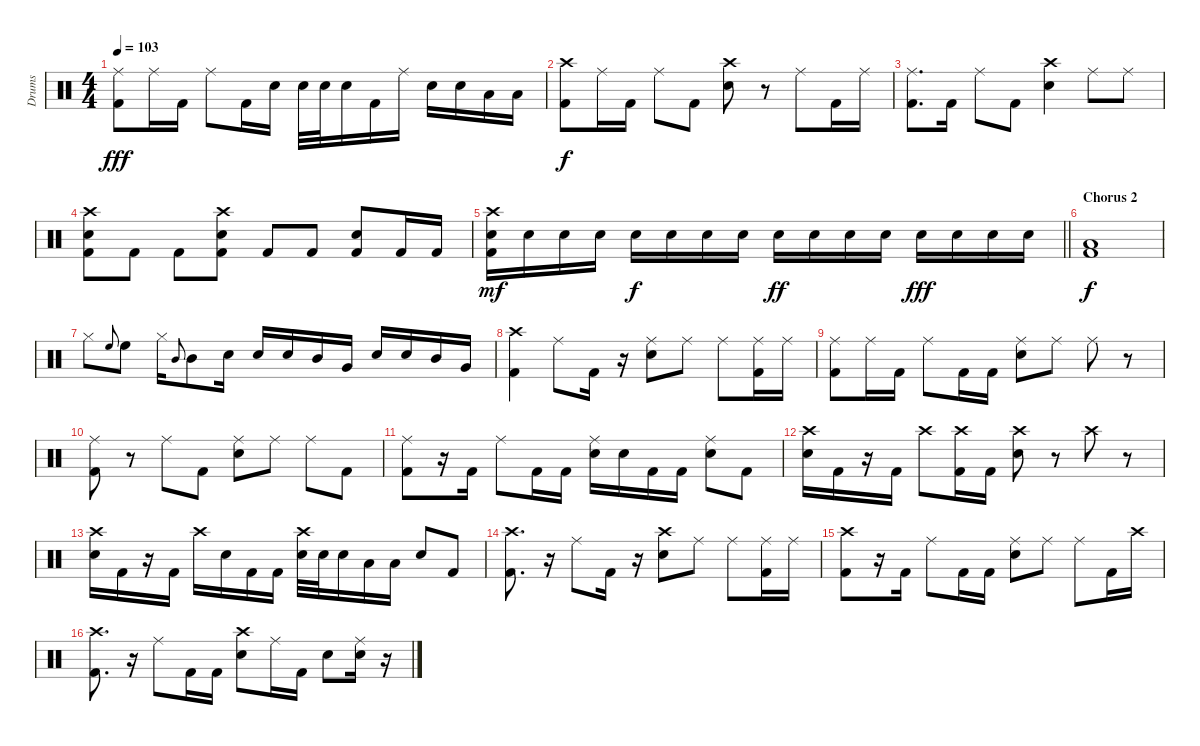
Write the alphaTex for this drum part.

\track ("Drums" "Drums") {instrument percussion}
\staff {score}
\articulation defaults
\ts (4 4)
\tempo 103
\clef neutral
\ks c
("Ride (middle)" "Kick (hit) 2").8{dy fff} "Ride (middle)".16 "Kick (hit) 2".16 "Ride (middle)".8 "Kick (hit) 2".16 "Snare (hit) 2".16 "Snare (hit) 2".32 "Snare (hit) 2".32 "Snare (hit) 2".16 "Kick (hit) 2".16 "Ride (middle)".16 "Snare (hit) 2".16 "Snare (hit) 2".16 "Low Tom (hit)".16 "Low Tom (hit)".16 |
("Kick (hit) 2" "Crash high (hit)").8{dy f} "Ride (middle)".16 "Kick (hit) 2".16 "Ride (middle)".8 "Kick (hit) 2".8 ("Snare (hit) 2" "Crash high (hit)").8 r.8 "Ride (middle)".8 "Kick (hit) 2".16 "Ride (middle)".16 |
("Kick (hit) 2" "Ride (middle)").8{d} "Kick (hit) 2".16 "Ride (middle)".8 "Kick (hit) 2".8 ("Snare (hit) 2" "Crash high (hit)").4 "Ride (middle)".8 "Ride (middle)".8 |
("Crash high (hit)" "Snare (hit) 2" "Kick (hit) 2").8 "Kick (hit) 2".8 "Kick (hit) 2".8 ("Crash high (hit)" "Snare (hit) 2" "Kick (hit) 2").8 "Kick (hit) 2".8 "Kick (hit) 2".8 ("Snare (hit) 2" "Kick (hit) 2").8 "Kick (hit) 2".16 "Kick (hit) 2".16 |
\barLineRight lightlight
("Snare (hit) 2" "Crash high (hit)" "Kick (hit) 2").16{dy mf} "Snare (hit) 2".16 "Snare (hit) 2".16 "Snare (hit) 2".16 "Snare (hit) 2".16{dy f} "Snare (hit) 2".16 "Snare (hit) 2".16 "Snare (hit) 2".16 "Snare (hit) 2".16{dy ff} "Snare (hit) 2".16 "Snare (hit) 2".16 "Snare (hit) 2".16 "Snare (hit) 2".16{dy fff} "Snare (hit) 2".16 "Snare (hit) 2".16 "Snare (hit) 2".16 |
\section ("" "Chorus 2")
("Kick (hit) 2" "Low Tom (hit)").1{dy f} |
"Hi-Hat (closed)".8 "High Floor Tom (hit)".8{gr onbeat} "High Floor Tom (hit)".8 "Hi-Hat (closed)".16 "Mid Tom (hit)".8{gr onbeat} "Mid Tom (hit)".8 "Snare (hit) 2".16 "Snare (hit) 2".16 "Snare (hit) 2".16 "Mid Tom (hit)".16 "Very Low Tom (hit)".16 "Snare (hit) 2".16 "Snare (hit) 2".16 "Mid Tom (hit)".16 "Very Low Tom (hit)".16 |
("Crash high (hit)" "Kick (hit) 2").4 "Ride (middle)".8 "Kick (hit) 2".16 r.16 ("Ride (middle)" "Snare (hit) 2").8 "Ride (middle)".8 "Ride (middle)".8 ("Ride (middle)" "Kick (hit) 2").16 "Ride (middle)".16 |
("Ride (middle)" "Kick (hit) 2").8 "Ride (middle)".16 "Kick (hit) 2".16 "Ride (middle)".8 "Kick (hit) 2".16 "Kick (hit) 2".16 ("Ride (middle)" "Snare (hit) 2").8 "Ride (middle)".8 "Ride (middle)".8 r.8 |
("Kick (hit) 2" "Ride (middle)").8 r.8 "Ride (middle)".8 "Kick (hit) 2".8 ("Ride (middle)" "Snare (hit) 2").8 "Ride (middle)".8 "Ride (middle)".8 "Kick (hit) 2".8 |
("Ride (middle)" "Kick (hit) 2").8 r.16 "Kick (hit) 2".16 "Ride (middle)".8 "Kick (hit) 2".16 "Kick (hit) 2".16 ("Ride (middle)" "Snare (hit) 2").16 "Snare (hit) 2".16 "Kick (hit) 2".16 "Kick (hit) 2".16 ("Ride (middle)" "Snare (hit) 2").8 "Kick (hit) 2".8 |
("Crash high (hit)" "Snare (hit) 2").16 "Kick (hit) 2".16 r.16 "Kick (hit) 2".16 "Crash high (hit)".8 ("Crash high (hit)" "Kick (hit) 2").16 "Kick (hit) 2".16 ("Crash high (hit)" "Snare (hit) 2").8 r.8 "Crash high (hit)".8 r.8 |
("Snare (hit) 2" "Crash high (hit)").16 "Kick (hit) 2".16 r.16 "Kick (hit) 2".16 "Crash high (hit)".16 "Snare (hit) 2".16 "Kick (hit) 2".16 "Kick (hit) 2".16 ("Crash high (hit)" "Snare (hit) 2").32 "Snare (hit) 2".32 "Snare (hit) 2".16 "Low Tom (hit)".16 "Low Floor Tom (hit)".16 "Snare (hit) 2".8 "Kick (hit) 2".8 |
("Kick (hit) 2" "Crash high (hit)").8{d} r.16 "Ride (middle)".8 "Kick (hit) 2".16 r.16 ("Crash high (hit)" "Snare (hit) 2").8 "Ride (middle)".8 "Ride (middle)".8 ("Ride (middle)" "Kick (hit) 2").16 "Ride (middle)".16 |
("Crash high (hit)" "Kick (hit) 2").8 r.16 "Kick (hit) 2".16 "Ride (middle)".8 "Kick (hit) 2".16 "Kick (hit) 2".16 ("Ride (middle)" "Snare (hit) 2").8 "Ride (middle)".8 "Ride (middle)".8 "Kick (hit) 2".16 "Crash high (hit)".16 |
("Crash high (hit)" "Kick (hit) 2").8{d} r.16 "Ride (middle)".8 "Kick (hit) 2".16 "Kick (hit) 2".16 ("Crash high (hit)" "Snare (hit) 2").8 "Ride (middle)".16 "Kick (hit) 2".16 "Snare (hit) 2".8 ("Snare (hit) 2" "Ride (middle)").16 r.16
